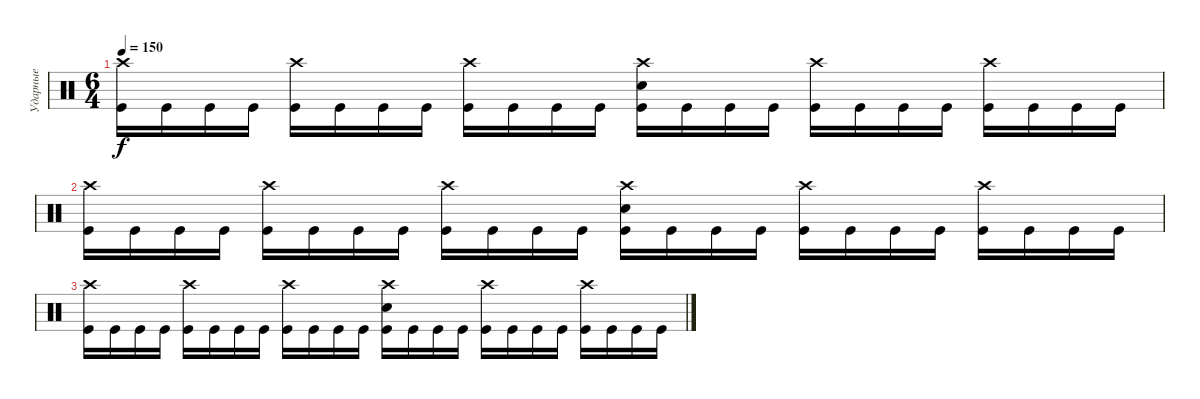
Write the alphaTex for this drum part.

\track ("Ударные" "Ударные") {instrument percussion}
\staff {score}
\articulation defaults
\ts (6 4)
\tempo 150
\clef neutral
\ks c
("Crash high (hit)" "Kick (hit)").16{dy f} "Kick (hit)".16 "Kick (hit)".16 "Kick (hit)".16 ("Crash high (hit)" "Kick (hit)").16 "Kick (hit)".16 "Kick (hit)".16 "Kick (hit)".16 ("Crash high (hit)" "Kick (hit)").16 "Kick (hit)".16 "Kick (hit)".16 "Kick (hit)".16 ("Crash high (hit)" "Snare (hit) 2" "Kick (hit)").16 "Kick (hit)".16 "Kick (hit)".16 "Kick (hit)".16 ("Crash high (hit)" "Kick (hit)").16 "Kick (hit)".16 "Kick (hit)".16 "Kick (hit)".16 ("Crash high (hit)" "Kick (hit)").16 "Kick (hit)".16 "Kick (hit)".16 "Kick (hit)".16 |
("Crash high (hit)" "Kick (hit)").16 "Kick (hit)".16 "Kick (hit)".16 "Kick (hit)".16 ("Crash high (hit)" "Kick (hit)").16 "Kick (hit)".16 "Kick (hit)".16 "Kick (hit)".16 ("Crash high (hit)" "Kick (hit)").16 "Kick (hit)".16 "Kick (hit)".16 "Kick (hit)".16 ("Crash high (hit)" "Snare (hit) 2" "Kick (hit)").16 "Kick (hit)".16 "Kick (hit)".16 "Kick (hit)".16 ("Crash high (hit)" "Kick (hit)").16 "Kick (hit)".16 "Kick (hit)".16 "Kick (hit)".16 ("Crash high (hit)" "Kick (hit)").16 "Kick (hit)".16 "Kick (hit)".16 "Kick (hit)".16 |
("Crash high (hit)" "Kick (hit)").16 "Kick (hit)".16 "Kick (hit)".16 "Kick (hit)".16 ("Crash high (hit)" "Kick (hit)").16 "Kick (hit)".16 "Kick (hit)".16 "Kick (hit)".16 ("Crash high (hit)" "Kick (hit)").16 "Kick (hit)".16 "Kick (hit)".16 "Kick (hit)".16 ("Crash high (hit)" "Snare (hit) 2" "Kick (hit)").16 "Kick (hit)".16 "Kick (hit)".16 "Kick (hit)".16 ("Crash high (hit)" "Kick (hit)").16 "Kick (hit)".16 "Kick (hit)".16 "Kick (hit)".16 ("Crash high (hit)" "Kick (hit)").16 "Kick (hit)".16 "Kick (hit)".16 "Kick (hit)".16
